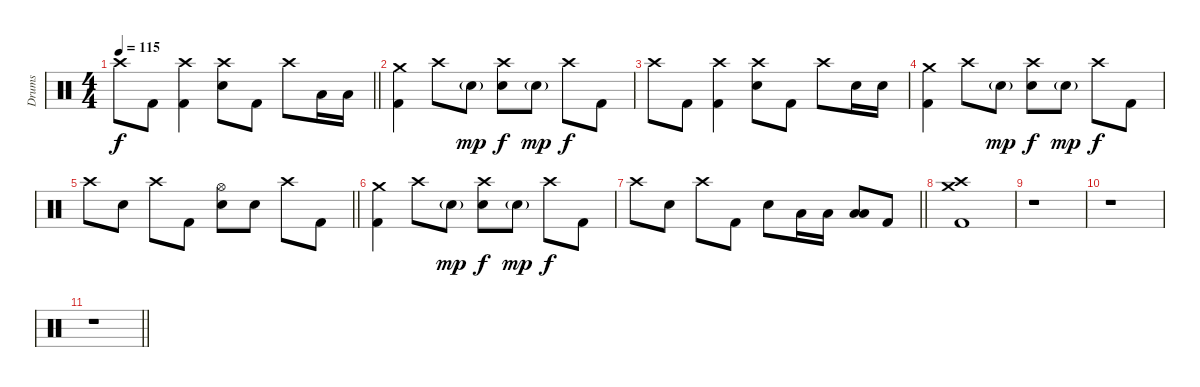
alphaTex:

\track ("Drums " "Drums ") {instrument percussion}
\staff {score}
\articulation defaults
\ts (4 4)
\tempo 115
\clef neutral
\barLineRight lightlight
\ks c "Crash high (hit)".8{dy f} "Kick (hit) 2".8
("Crash high (hit)" "Kick (hit) 2").4 ("Crash high (hit)" "Electric Snare (hit)").8 "Kick (hit) 2".8 "Crash high (hit)".8 "Low Tom (hit)".16 "Low Tom (hit)".16 |
("Crash medium (hit)" "Kick (hit) 2").4 "Crash high (hit)".8 "Electric Snare (hit)"{g}.8{dy mp} ("Crash high (hit)" "Electric Snare (hit)").8{dy f} "Electric Snare (hit)"{g}.8{dy mp} "Crash high (hit)".8{dy f} "Kick (hit) 2".8 |
"Crash high (hit)".8 "Kick (hit) 2".8 ("Crash high (hit)" "Kick (hit) 2").4 ("Crash high (hit)" "Electric Snare (hit)").8 "Kick (hit) 2".8 "Crash high (hit)".8 "Electric Snare (hit)".16 "Electric Snare (hit)".16 |
("Crash medium (hit)" "Kick (hit) 2").4 "Crash high (hit)".8 "Electric Snare (hit)"{g}.8{dy mp} ("Crash high (hit)" "Electric Snare (hit)").8{dy f} "Electric Snare (hit)"{g}.8{dy mp} "Crash high (hit)".8{dy f} "Kick (hit) 2".8 |
\barLineRight lightlight "Crash high (hit)".8 "Electric Snare (hit)".8 "Crash high (hit)".8 "Kick (hit) 2".8
("Hi-Hat (open)" "Electric Snare (hit)").8 "Electric Snare (hit)".8 "Crash high (hit)".8 "Kick (hit) 2".8 |
("Crash medium (hit)" "Kick (hit) 2").4 "Crash high (hit)".8 "Electric Snare (hit)"{g}.8{dy mp} ("Crash high (hit)" "Electric Snare (hit)").8{dy f} "Electric Snare (hit)"{g}.8{dy mp} "Crash high (hit)".8{dy f} "Kick (hit) 2".8 |
\barLineRight lightlight "Crash high (hit)".8 "Electric Snare (hit)".8 "Crash high (hit)".8 "Kick (hit) 2".8 "Electric Snare (hit)".8 "Low Tom (hit)".16 "Low Tom (hit)".16
("Low Tom (hit)" "Low Floor Tom (hit)").8 "Kick (hit) 2".8 |
("Crash medium (hit)" "Crash high (hit)" "Kick (hit) 2").1 |
r.1 |
r.1 |
\barLineRight lightlight
r.1
